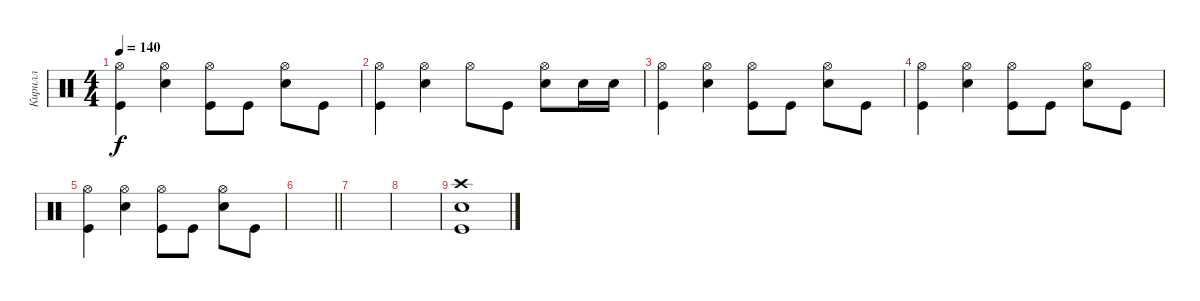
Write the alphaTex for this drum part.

\track ("Кирилл" "Кирилл") {instrument percussion}
\staff {score}
\articulation defaults
\ts (4 4)
\tempo 140
\clef neutral
\ks c
("Hi-Hat (open)" "Kick (hit)").4{dy f} ("Hi-Hat (open)" "Snare (hit) 2").4 ("Hi-Hat (open)" "Kick (hit)").8 "Kick (hit)".8 ("Hi-Hat (open)" "Snare (hit) 2").8 "Kick (hit)".8 |
("Hi-Hat (open)" "Kick (hit)").4 ("Hi-Hat (open)" "Snare (hit) 2").4 "Hi-Hat (open)".8 "Kick (hit)".8 ("Hi-Hat (open)" "Snare (hit) 2").8 "Snare (hit) 2".16 "Snare (hit) 2".16 |
("Hi-Hat (open)" "Kick (hit)").4 ("Hi-Hat (open)" "Snare (hit) 2").4 ("Hi-Hat (open)" "Kick (hit)").8 "Kick (hit)".8 ("Hi-Hat (open)" "Snare (hit) 2").8 "Kick (hit)".8 |
("Hi-Hat (open)" "Kick (hit)").4 ("Hi-Hat (open)" "Snare (hit) 2").4 ("Hi-Hat (open)" "Kick (hit)").8 "Kick (hit)".8 ("Hi-Hat (open)" "Snare (hit) 2").8 "Kick (hit)".8 |
("Hi-Hat (open)" "Kick (hit)").4 ("Hi-Hat (open)" "Snare (hit) 2").4 ("Hi-Hat (open)" "Kick (hit)").8 "Kick (hit)".8 ("Hi-Hat (open)" "Snare (hit) 2").8 "Kick (hit)".8 |
\barLineRight lightlight
|
|
|
("Crash high (hit)" "Snare (hit) 2" "Kick (hit)").1
